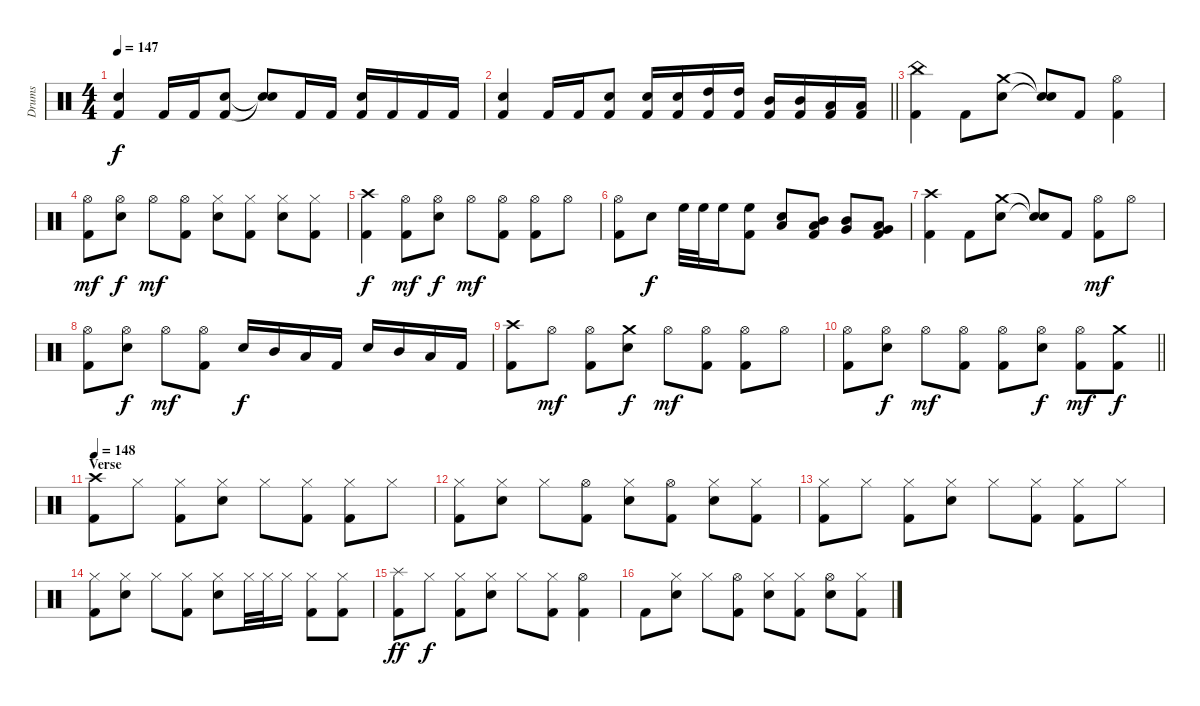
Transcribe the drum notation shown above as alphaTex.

\track ("Drums" "Drums") {instrument percussion}
\staff {score}
\articulation defaults
\ts (4 4)
\tempo 147
\clef neutral
\ks c
("Snare (hit) 2" "Kick (hit) 2").4{dy f} "Kick (hit) 2".16 "Kick (hit) 2".16 ("Snare (hit) 2" "Kick (hit) 2").8 ("Snare (hit)"{t} "Snare (hit)"{t}).8 "Kick (hit) 2".16 "Kick (hit) 2".16 ("Snare (hit) 2" "Kick (hit) 2").16 "Kick (hit) 2".16 "Kick (hit) 2".16 "Kick (hit) 2".16 |
\barLineRight lightlight
("Snare (hit) 2" "Kick (hit) 2").4 "Kick (hit) 2".16 "Kick (hit) 2".16 ("Snare (hit) 2" "Kick (hit) 2").8 ("Snare (hit) 2" "Kick (hit) 2").16 ("Snare (hit) 2" "Kick (hit) 2").16 ("High Tom (hit)" "Kick (hit) 2").16 ("High Tom (hit)" "Kick (hit) 2").16 ("Mid Tom (hit)" "Kick (hit) 2").16 ("Mid Tom (hit)" "Kick (hit) 2").16 ("Low Tom (hit)" "Kick (hit) 2").16 ("Low Tom (hit)" "Kick (hit) 2").16 |
\section ("" "")
("China (hit)" "Kick (hit) 2").4 "Kick (hit) 2".8 ("Crash medium (hit)" "Snare (hit) 2").8 ("Snare (hit)"{t} "Snare (hit)"{t}).8 "Kick (hit) 2".8 ("Hi-Hat (open)" "Kick (hit) 2").4 |
("Hi-Hat (open)" "Kick (hit) 2").8{dy mf} ("Hi-Hat (open)" "Snare (hit) 2").8{dy f} "Hi-Hat (open)".8{dy mf} ("Hi-Hat (open)" "Kick (hit) 2").8 ("Hi-Hat (closed)" "Snare (hit) 2").8 ("Hi-Hat (closed)" "Kick (hit) 2").8 ("Hi-Hat (closed)" "Snare (hit) 2").8 ("Hi-Hat (closed)" "Kick (hit) 2").8 |
("Crash high (hit)" "Kick (hit) 2").4{dy f} ("Hi-Hat (open)" "Kick (hit) 2").8{dy mf} ("Hi-Hat (open)" "Snare (hit) 2").8{dy f} "Hi-Hat (open)".8{dy mf} ("Hi-Hat (open)" "Kick (hit) 2").8 ("Hi-Hat (open)" "Kick (hit) 2").8 "Hi-Hat (open)".8 |
("Hi-Hat (open)" "Kick (hit) 2").8 "Snare (hit) 2".8{dy f} "High Floor Tom (hit)".32 "High Floor Tom (hit)".32 "High Floor Tom (hit)".16 ("High Floor Tom (hit)" "Kick (hit) 2").8 ("Snare (hit) 2" "Low Tom (hit)").8 ("Mid Tom (hit)" "Low Tom (hit)" "Kick (hit) 2").8 ("Mid Tom (hit)" "Very Low Tom (hit)").8 ("Low Tom (hit)" "Very Low Tom (hit)" "Kick (hit) 2").8 |
("Crash high (hit)" "Kick (hit) 2").4 "Kick (hit) 2".8 ("Crash medium (hit)" "Snare (hit) 2").8 ("Snare (hit)"{t} "Snare (hit)"{t}).8 "Kick (hit) 2".8 ("Hi-Hat (open)" "Kick (hit) 2").8{dy mf} "Hi-Hat (open)".8 |
("Hi-Hat (open)" "Kick (hit) 2").8 ("Hi-Hat (open)" "Snare (hit) 2").8{dy f} "Hi-Hat (open)".8{dy mf} ("Hi-Hat (open)" "Kick (hit) 2").8 "Snare (hit) 2".16{dy f} "Mid Tom (hit)".16 "Low Tom (hit)".16 "Kick (hit) 2".16 "Snare (hit) 2".16 "Mid Tom (hit)".16 "Low Tom (hit)".16 "Kick (hit) 2".16 |
("Crash high (hit)" "Kick (hit) 2").8 "Hi-Hat (open)".8{dy mf} ("Hi-Hat (open)" "Kick (hit) 2").8 ("Crash medium (hit)" "Snare (hit) 2").8{dy f} "Hi-Hat (open)".8{dy mf} ("Hi-Hat (open)" "Kick (hit) 2").8 ("Hi-Hat (open)" "Kick (hit) 2").8 "Hi-Hat (open)".8 |
\barLineRight lightlight
("Hi-Hat (open)" "Kick (hit) 2").8 ("Hi-Hat (open)" "Snare (hit) 2").8{dy f} "Hi-Hat (open)".8{dy mf} ("Hi-Hat (open)" "Kick (hit) 2").8 ("Hi-Hat (open)" "Kick (hit) 2").8 ("Hi-Hat (open)" "Snare (hit) 2").8{dy f} ("Hi-Hat (open)" "Kick (hit) 2").8{dy mf} ("Crash medium (hit)" "Kick (hit) 2").8{dy f} |
\section ("" "Verse")
\tempo 148
("Crash high (hit)" "Kick (hit) 2").8 "Hi-Hat (closed)".8 ("Hi-Hat (closed)" "Kick (hit) 2").8 ("Hi-Hat (closed)" "Snare (hit) 2").8 "Hi-Hat (closed)".8 ("Hi-Hat (closed)" "Kick (hit) 2").8 ("Hi-Hat (closed)" "Kick (hit) 2").8 "Hi-Hat (closed)".8 |
("Hi-Hat (closed)" "Kick (hit) 2").8 ("Hi-Hat (closed)" "Snare (hit) 2").8 "Hi-Hat (closed)".8 ("Hi-Hat (open)" "Kick (hit) 2").8 ("Hi-Hat (closed)" "Snare (hit) 2").8 ("Hi-Hat (open)" "Kick (hit) 2").8 ("Hi-Hat (closed)" "Snare (hit) 2").8 ("Hi-Hat (closed)" "Kick (hit) 2").8 |
("Hi-Hat (closed)" "Kick (hit) 2").8 "Hi-Hat (closed)".8 ("Hi-Hat (closed)" "Kick (hit) 2").8 ("Hi-Hat (closed)" "Snare (hit) 2").8 "Hi-Hat (closed)".8 ("Hi-Hat (closed)" "Kick (hit) 2").8 ("Hi-Hat (closed)" "Kick (hit) 2").8 "Hi-Hat (closed)".8 |
("Hi-Hat (closed)" "Kick (hit) 2").8 ("Hi-Hat (closed)" "Snare (hit) 2").8 "Hi-Hat (closed)".8 ("Hi-Hat (closed)" "Kick (hit) 2").8 ("Hi-Hat (closed)" "Snare (hit) 2").8 "Hi-Hat (closed)".32 "Hi-Hat (closed)".32 "Hi-Hat (closed)".16 ("Hi-Hat (closed)" "Kick (hit) 2").8 ("Hi-Hat (closed)" "Kick (hit) 2").8 |
("Splash (hit)" "Kick (hit) 2").8{dy ff} "Hi-Hat (closed)".8{dy f} ("Hi-Hat (closed)" "Kick (hit) 2").8 ("Hi-Hat (closed)" "Snare (hit) 2").8 "Hi-Hat (closed)".8 ("Hi-Hat (closed)" "Kick (hit) 2").8 ("Hi-Hat (open)" "Kick (hit) 2").4 |
"Kick (hit) 2".8 ("Hi-Hat (closed)" "Snare (hit) 2").8 "Hi-Hat (closed)".8 ("Hi-Hat (open)" "Kick (hit) 2").8 ("Hi-Hat (closed)" "Snare (hit) 2").8 ("Hi-Hat (closed)" "Kick (hit) 2").8 ("Hi-Hat (open)" "Snare (hit) 2").8 ("Hi-Hat (closed)" "Kick (hit) 2").8
